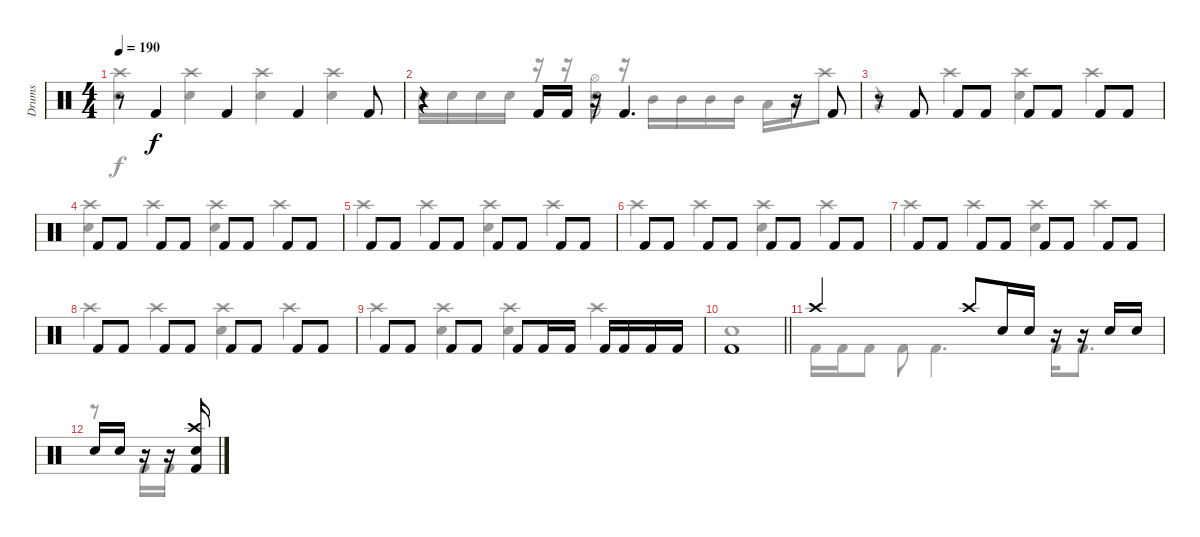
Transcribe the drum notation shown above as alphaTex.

\track ("Drums" "Drums") {instrument percussion}
\staff {score}
\articulation defaults
\voice
\ts (4 4)
\tempo 190
\clef neutral
\ks c
r.8{dy f} "Kick (hit) 2".4 "Kick (hit) 2".4 "Kick (hit) 2".4 "Kick (hit) 2".8 |
r.4 "Kick (hit) 2".16 "Kick (hit) 2".16 r.16 "Kick (hit) 2".4{d} r.16 "Kick (hit) 2".8 |
r.8 "Kick (hit) 2".8 "Kick (hit) 2".8 "Kick (hit) 2".8 "Kick (hit) 2".8 "Kick (hit) 2".8 "Kick (hit) 2".8 "Kick (hit) 2".8 |
"Kick (hit) 2".8 "Kick (hit) 2".8 "Kick (hit) 2".8 "Kick (hit) 2".8 "Kick (hit) 2".8 "Kick (hit) 2".8 "Kick (hit) 2".8 "Kick (hit) 2".8 |
"Kick (hit) 2".8 "Kick (hit) 2".8 "Kick (hit) 2".8 "Kick (hit) 2".8 "Kick (hit) 2".8 "Kick (hit) 2".8 "Kick (hit) 2".8 "Kick (hit) 2".8 |
"Kick (hit) 2".8 "Kick (hit) 2".8 "Kick (hit) 2".8 "Kick (hit) 2".8 "Kick (hit) 2".8 "Kick (hit) 2".8 "Kick (hit) 2".8 "Kick (hit) 2".8 |
"Kick (hit) 2".8 "Kick (hit) 2".8 "Kick (hit) 2".8 "Kick (hit) 2".8 "Kick (hit) 2".8 "Kick (hit) 2".8 "Kick (hit) 2".8 "Kick (hit) 2".8 |
"Kick (hit) 2".8 "Kick (hit) 2".8 "Kick (hit) 2".8 "Kick (hit) 2".8 "Kick (hit) 2".8 "Kick (hit) 2".8 "Kick (hit) 2".8 "Kick (hit) 2".8 |
"Kick (hit) 2".8 "Kick (hit) 2".8 "Kick (hit) 2".8 "Kick (hit) 2".8 "Kick (hit) 2".8 "Kick (hit) 2".16 "Kick (hit) 2".16 "Kick (hit) 2".16 "Kick (hit) 2".16 "Kick (hit) 2".16 "Kick (hit) 2".16 |
\barLineRight lightlight "Kick (hit) 2".1
|
"Crash high (hit)".2 "Crash high (hit)".8 "Electric Snare (hit)".16 "Electric Snare (hit)".16 r.16 r.16 "Electric Snare (hit)".16 "Electric Snare (hit)".16 |
"Electric Snare (hit)".16 "Electric Snare (hit)".16 r.16 r.16 ("Kick (hit) 2" "Electric Snare (hit)" "Crash high (hit)").16 |
\voice
\clef neutral
\ottava regular
\simile none
\ks c
("Electric Snare (hit)" "Crash high (hit)").4{dy f} ("Electric Snare (hit)" "Crash high (hit)").4 ("Electric Snare (hit)" "Crash high (hit)").4 ("Electric Snare (hit)" "Crash high (hit)").4 |
"Electric Snare (hit)".16 "Electric Snare (hit)".16 "Electric Snare (hit)".16 "Electric Snare (hit)".16 r.16 r.16 ("Electric Snare (hit)" "Hi-Hat (open)").16 r.16 "Mid Tom (hit)".16 "Mid Tom (hit)".16 "Mid Tom (hit)".16 "Mid Tom (hit)".16 "Low Floor Tom (hit)".16 "Low Floor Tom (hit)".16 "Crash high (hit)".8 |
r.4 "Crash high (hit)".4 ("Electric Snare (hit)" "Crash high (hit)").4 "Crash high (hit)".4 |
("Snare (hit)" "Crash high (hit)").4 "Crash high (hit)".4 ("Electric Snare (hit)" "Crash high (hit)").4 "Crash high (hit)".4 |
"Crash high (hit)".4 "Crash high (hit)".4 ("Electric Snare (hit)" "Crash high (hit)").4 "Crash high (hit)".4 |
"Crash high (hit)".4 "Crash high (hit)".4 ("Electric Snare (hit)" "Crash high (hit)").4 "Crash high (hit)".4 |
"Crash high (hit)".4 "Crash high (hit)".4 ("Electric Snare (hit)" "Crash high (hit)").4 "Crash high (hit)".4 |
"Crash high (hit)".4 "Crash high (hit)".4 ("Electric Snare (hit)" "Crash high (hit)").4 "Crash high (hit)".4 |
"Crash high (hit)".4 ("Electric Snare (hit)" "Crash high (hit)").4 ("Electric Snare (hit)" "Crash high (hit)").4 "Crash high (hit)".4 |
\barLineRight lightlight "Electric Snare (hit)".1
|
"Kick (hit) 2".16 "Kick (hit) 2".16 "Kick (hit) 2".8 "Kick (hit) 2".8 "Kick (hit) 2".4{d} "Kick (hit) 2".16 "Kick (hit) 2".8{d} |
r.8 "Kick (hit) 2".16 "Kick (hit) 2".16 |
